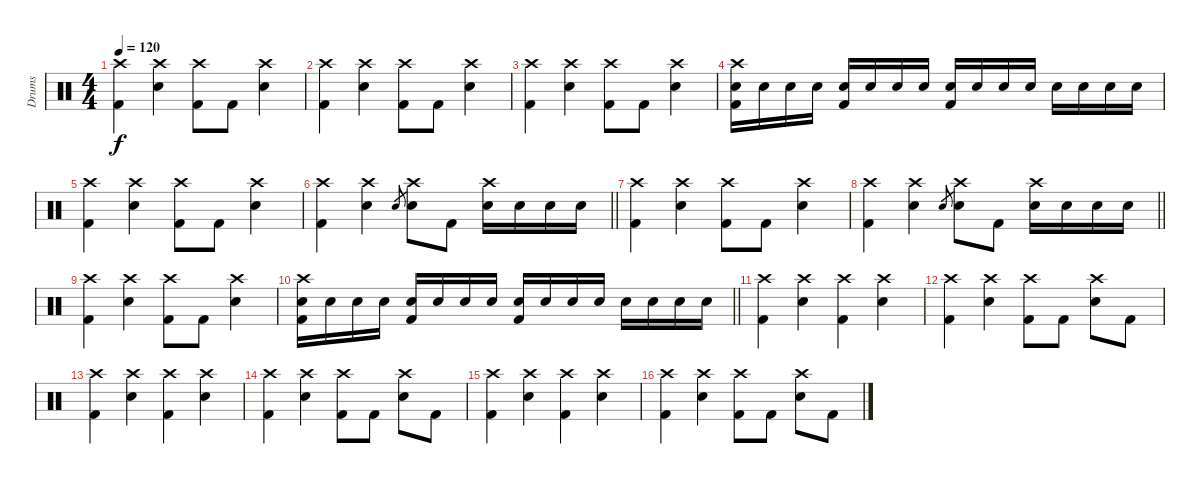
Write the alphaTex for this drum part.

\track ("Drums" "Drums") {instrument percussion}
\staff {score}
\articulation defaults
\ts (4 4)
\tempo 120
\clef neutral
\ks c
("Crash high (hit)" "Kick (hit) 2").4{dy f} ("Crash high (hit)" "Electric Snare (hit)").4 ("Crash high (hit)" "Kick (hit) 2").8 "Kick (hit) 2".8 ("Crash high (hit)" "Electric Snare (hit)").4 |
("Crash high (hit)" "Kick (hit) 2").4 ("Crash high (hit)" "Electric Snare (hit)").4 ("Crash high (hit)" "Kick (hit) 2").8 "Kick (hit) 2".8 ("Crash high (hit)" "Electric Snare (hit)").4 |
("Crash high (hit)" "Kick (hit) 2").4 ("Crash high (hit)" "Electric Snare (hit)").4 ("Crash high (hit)" "Kick (hit) 2").8 "Kick (hit) 2".8 ("Crash high (hit)" "Electric Snare (hit)").4 |
("Crash high (hit)" "Electric Snare (hit)" "Kick (hit) 2").16 "Electric Snare (hit)".16 "Electric Snare (hit)".16 "Electric Snare (hit)".16 ("Electric Snare (hit)" "Kick (hit) 2").16 "Electric Snare (hit)".16 "Electric Snare (hit)".16 "Electric Snare (hit)".16 ("Electric Snare (hit)" "Kick (hit) 2").16 "Electric Snare (hit)".16 "Electric Snare (hit)".16 "Electric Snare (hit)".16 "Electric Snare (hit)".16 "Electric Snare (hit)".16 "Electric Snare (hit)".16 "Electric Snare (hit)".16 |
("Crash high (hit)" "Kick (hit) 2").4 ("Crash high (hit)" "Electric Snare (hit)").4 ("Crash high (hit)" "Kick (hit) 2").8 "Kick (hit) 2".8 ("Crash high (hit)" "Electric Snare (hit)").4 |
\barLineRight lightlight
("Crash high (hit)" "Kick (hit) 2").4 ("Crash high (hit)" "Electric Snare (hit)").4 "Electric Snare (hit)".8{gr} ("Crash high (hit)" "Electric Snare (hit)").8 "Kick (hit) 2".8 ("Crash high (hit)" "Electric Snare (hit)").16 "Electric Snare (hit)".16 "Electric Snare (hit)".16 "Electric Snare (hit)".16 |
("Crash high (hit)" "Kick (hit) 2").4 ("Crash high (hit)" "Electric Snare (hit)").4 ("Crash high (hit)" "Kick (hit) 2").8 "Kick (hit) 2".8 ("Crash high (hit)" "Electric Snare (hit)").4 |
\barLineRight lightlight
("Crash high (hit)" "Kick (hit) 2").4 ("Crash high (hit)" "Electric Snare (hit)").4 "Electric Snare (hit)".8{gr} ("Crash high (hit)" "Electric Snare (hit)").8 "Kick (hit) 2".8 ("Crash high (hit)" "Electric Snare (hit)").16 "Electric Snare (hit)".16 "Electric Snare (hit)".16 "Electric Snare (hit)".16 |
("Crash high (hit)" "Kick (hit) 2").4 ("Crash high (hit)" "Electric Snare (hit)").4 ("Crash high (hit)" "Kick (hit) 2").8 "Kick (hit) 2".8 ("Crash high (hit)" "Electric Snare (hit)").4 |
\barLineRight lightlight
("Crash high (hit)" "Electric Snare (hit)" "Kick (hit) 2").16 "Electric Snare (hit)".16 "Electric Snare (hit)".16 "Electric Snare (hit)".16 ("Electric Snare (hit)" "Kick (hit) 2").16 "Electric Snare (hit)".16 "Electric Snare (hit)".16 "Electric Snare (hit)".16 ("Electric Snare (hit)" "Kick (hit) 2").16 "Electric Snare (hit)".16 "Electric Snare (hit)".16 "Electric Snare (hit)".16 "Electric Snare (hit)".16 "Electric Snare (hit)".16 "Electric Snare (hit)".16 "Electric Snare (hit)".16 |
("Crash high (hit)" "Kick (hit) 2").4 ("Crash high (hit)" "Electric Snare (hit)").4 ("Crash high (hit)" "Kick (hit) 2").4 ("Crash high (hit)" "Electric Snare (hit)").4 |
("Crash high (hit)" "Kick (hit) 2").4 ("Crash high (hit)" "Electric Snare (hit)").4 ("Crash high (hit)" "Kick (hit) 2").8 "Kick (hit) 2".8 ("Crash high (hit)" "Electric Snare (hit)").8 "Kick (hit) 2".8 |
("Crash high (hit)" "Kick (hit) 2").4 ("Crash high (hit)" "Electric Snare (hit)").4 ("Crash high (hit)" "Kick (hit) 2").4 ("Crash high (hit)" "Electric Snare (hit)").4 |
("Crash high (hit)" "Kick (hit) 2").4 ("Crash high (hit)" "Electric Snare (hit)").4 ("Crash high (hit)" "Kick (hit) 2").8 "Kick (hit) 2".8 ("Crash high (hit)" "Electric Snare (hit)").8 "Kick (hit) 2".8 |
("Crash high (hit)" "Kick (hit) 2").4 ("Crash high (hit)" "Electric Snare (hit)").4 ("Crash high (hit)" "Kick (hit) 2").4 ("Crash high (hit)" "Electric Snare (hit)").4 |
("Crash high (hit)" "Kick (hit) 2").4 ("Crash high (hit)" "Electric Snare (hit)").4 ("Crash high (hit)" "Kick (hit) 2").8 "Kick (hit) 2".8 ("Crash high (hit)" "Electric Snare (hit)").8 "Kick (hit) 2".8
